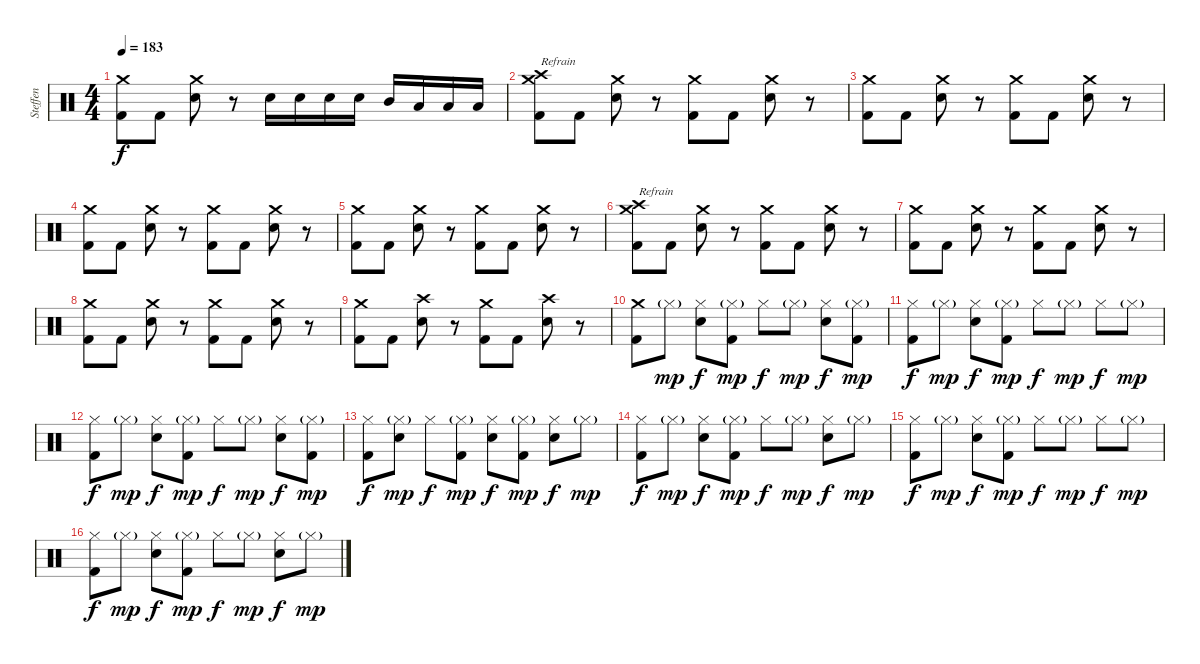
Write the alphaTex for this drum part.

\track ("Steffen" "Steffen") {instrument percussion}
\staff {score}
\articulation defaults
\ts (4 4)
\tempo 183
\clef neutral
\ks c
("Crash medium (hit)" "Kick (hit) 2").8{dy f} "Kick (hit) 2".8 ("Crash medium (hit)" "Snare (hit) 2").8 r.8 "Snare (hit) 2".16 "Snare (hit) 2".16 "Snare (hit) 2".16 "Snare (hit) 2".16 "Mid Tom (hit)".16 "Low Tom (hit)".16 "Low Tom (hit)".16 "Low Tom (hit)".16 |
("Crash high (hit)" "Crash medium (hit)" "Kick (hit) 2").8{txt "Refrain"} "Kick (hit) 2".8 ("Crash medium (hit)" "Snare (hit) 2").8 r.8 ("Crash medium (hit)" "Kick (hit) 2").8 "Kick (hit) 2".8 ("Crash medium (hit)" "Snare (hit) 2").8 r.8 |
("Crash medium (hit)" "Kick (hit) 2").8 "Kick (hit) 2".8 ("Crash medium (hit)" "Snare (hit) 2").8 r.8 ("Crash medium (hit)" "Kick (hit) 2").8 "Kick (hit) 2".8 ("Crash medium (hit)" "Snare (hit) 2").8 r.8 |
("Crash medium (hit)" "Kick (hit) 2").8 "Kick (hit) 2".8 ("Crash medium (hit)" "Snare (hit) 2").8 r.8 ("Crash medium (hit)" "Kick (hit) 2").8 "Kick (hit) 2".8 ("Crash medium (hit)" "Snare (hit) 2").8 r.8 |
("Crash medium (hit)" "Kick (hit) 2").8 "Kick (hit) 2".8 ("Crash medium (hit)" "Snare (hit) 2").8 r.8 ("Crash medium (hit)" "Kick (hit) 2").8 "Kick (hit) 2".8 ("Crash medium (hit)" "Snare (hit) 2").8 r.8 |
("Crash high (hit)" "Crash medium (hit)" "Kick (hit) 2").8{txt "Refrain"} "Kick (hit) 2".8 ("Crash medium (hit)" "Snare (hit) 2").8 r.8 ("Crash medium (hit)" "Kick (hit) 2").8 "Kick (hit) 2".8 ("Crash medium (hit)" "Snare (hit) 2").8 r.8 |
("Crash medium (hit)" "Kick (hit) 2").8 "Kick (hit) 2".8 ("Crash medium (hit)" "Snare (hit) 2").8 r.8 ("Crash medium (hit)" "Kick (hit) 2").8 "Kick (hit) 2".8 ("Crash medium (hit)" "Snare (hit) 2").8 r.8 |
("Crash medium (hit)" "Kick (hit) 2").8 "Kick (hit) 2".8 ("Crash medium (hit)" "Snare (hit) 2").8 r.8 ("Crash medium (hit)" "Kick (hit) 2").8 "Kick (hit) 2".8 ("Crash medium (hit)" "Snare (hit) 2").8 r.8 |
("Crash medium (hit)" "Kick (hit) 2").8 "Kick (hit) 2".8 ("Crash high (hit)" "Snare (hit) 2").8 r.8 ("Crash medium (hit)" "Kick (hit) 2").8 "Kick (hit) 2".8 ("Crash high (hit)" "Snare (hit) 2").8 r.8 |
("Crash medium (hit)" "Kick (hit) 2").8 "Hi-Hat (closed)"{g}.8{dy mp} ("Hi-Hat (closed)" "Electric Snare (hit)").8{dy f} ("Hi-Hat (closed)"{g} "Kick (hit) 2").8{dy mp} "Hi-Hat (closed)".8{dy f} "Hi-Hat (closed)"{g}.8{dy mp} ("Hi-Hat (closed)" "Electric Snare (hit)").8{dy f} ("Hi-Hat (closed)"{g} "Kick (hit) 2").8{dy mp} |
("Hi-Hat (closed)" "Kick (hit) 2").8{dy f} "Hi-Hat (closed)"{g}.8{dy mp} ("Hi-Hat (closed)" "Electric Snare (hit)").8{dy f} ("Hi-Hat (closed)"{g} "Kick (hit) 2").8{dy mp} "Hi-Hat (closed)".8{dy f} "Hi-Hat (closed)"{g}.8{dy mp} "Hi-Hat (closed)".8{dy f} "Hi-Hat (closed)"{g}.8{dy mp} |
("Hi-Hat (closed)" "Kick (hit) 2").8{dy f} "Hi-Hat (closed)"{g}.8{dy mp} ("Hi-Hat (closed)" "Electric Snare (hit)").8{dy f} ("Hi-Hat (closed)"{g} "Kick (hit) 2").8{dy mp} "Hi-Hat (closed)".8{dy f} "Hi-Hat (closed)"{g}.8{dy mp} ("Hi-Hat (closed)" "Electric Snare (hit)").8{dy f} ("Hi-Hat (closed)"{g} "Kick (hit) 2").8{dy mp} |
("Hi-Hat (closed)" "Kick (hit) 2").8{dy f} ("Hi-Hat (closed)"{g} "Electric Snare (hit)").8{dy mp} "Hi-Hat (closed)".8{dy f} ("Hi-Hat (closed)"{g} "Kick (hit) 2").8{dy mp} ("Hi-Hat (closed)" "Electric Snare (hit)").8{dy f} ("Hi-Hat (closed)"{g} "Kick (hit) 2").8{dy mp} ("Hi-Hat (closed)" "Electric Snare (hit)").8{dy f} "Hi-Hat (closed)"{g}.8{dy mp} |
("Hi-Hat (closed)" "Kick (hit) 2").8{dy f} "Hi-Hat (closed)"{g}.8{dy mp} ("Hi-Hat (closed)" "Electric Snare (hit)").8{dy f} ("Hi-Hat (closed)"{g} "Kick (hit) 2").8{dy mp} "Hi-Hat (closed)".8{dy f} "Hi-Hat (closed)"{g}.8{dy mp} ("Hi-Hat (closed)" "Electric Snare (hit)").8{dy f} "Hi-Hat (closed)"{g}.8{dy mp} |
("Hi-Hat (closed)" "Kick (hit) 2").8{dy f} "Hi-Hat (closed)"{g}.8{dy mp} ("Hi-Hat (closed)" "Electric Snare (hit)").8{dy f} ("Hi-Hat (closed)"{g} "Kick (hit) 2").8{dy mp} "Hi-Hat (closed)".8{dy f} "Hi-Hat (closed)"{g}.8{dy mp} "Hi-Hat (closed)".8{dy f} "Hi-Hat (closed)"{g}.8{dy mp} |
("Hi-Hat (closed)" "Kick (hit) 2").8{dy f} "Hi-Hat (closed)"{g}.8{dy mp} ("Hi-Hat (closed)" "Electric Snare (hit)").8{dy f} ("Hi-Hat (closed)"{g} "Kick (hit) 2").8{dy mp} "Hi-Hat (closed)".8{dy f} "Hi-Hat (closed)"{g}.8{dy mp} ("Hi-Hat (closed)" "Electric Snare (hit)").8{dy f} "Hi-Hat (closed)"{g}.8{dy mp}
